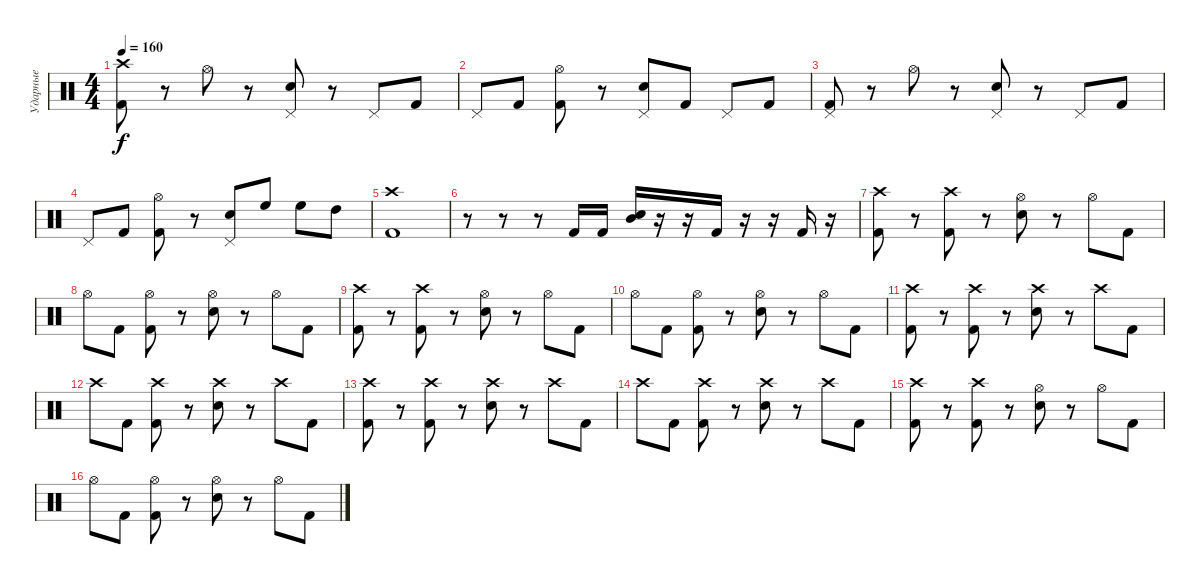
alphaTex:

\track ("Ударные" "Ударные") {instrument percussion}
\staff {score}
\articulation defaults
\ts (4 4)
\tempo 160
\clef neutral
\ks c
("Crash high (hit)" "Kick (hit) 2").8{dy f} r.8 "Hi-Hat (open)".8 r.8 ("Pedal Hi-Hat (hit)" "Snare (hit) 2").8 r.8 "Pedal Hi-Hat (hit)".8 "Kick (hit) 2".8 |
"Pedal Hi-Hat (hit)".8 "Kick (hit) 2".8 ("Hi-Hat (open)" "Kick (hit) 2").8 r.8 ("Pedal Hi-Hat (hit)" "Snare (hit) 2").8 "Kick (hit) 2".8 "Pedal Hi-Hat (hit)".8 "Kick (hit) 2".8 |
("Pedal Hi-Hat (hit)" "Kick (hit) 2").8 r.8 "Hi-Hat (open)".8 r.8 ("Pedal Hi-Hat (hit)" "Snare (hit) 2").8 r.8 "Pedal Hi-Hat (hit)".8 "Kick (hit) 2".8 |
"Pedal Hi-Hat (hit)".8 "Kick (hit) 2".8 ("Hi-Hat (open)" "Kick (hit) 2").8 r.8 ("Pedal Hi-Hat (hit)" "Snare (hit) 2").8 "High Floor Tom (hit)".8 "High Floor Tom (hit)".8 "High Tom (hit)".8 |
("Crash high (hit)" "Kick (hit) 2").1 |
r.8 r.8 r.8 "Kick (hit) 2".16 "Kick (hit) 2".16 ("Mid Tom (hit)" "Snare (hit) 2").16 r.16 r.16 "Kick (hit) 2".16 r.16 r.16 "Kick (hit) 2".16 r.16 |
("Crash high (hit)" "Kick (hit) 2").8 r.8 ("Crash high (hit)" "Kick (hit) 2").8 r.8 ("Hi-Hat (open)" "Snare (hit) 2").8 r.8 "Hi-Hat (open)".8 "Kick (hit) 2".8 |
"Hi-Hat (open)".8 "Kick (hit) 2".8 ("Hi-Hat (open)" "Kick (hit) 2").8 r.8 ("Hi-Hat (open)" "Snare (hit) 2").8 r.8 "Hi-Hat (open)".8 "Kick (hit) 2".8 |
("Crash high (hit)" "Kick (hit) 2").8 r.8 ("Crash high (hit)" "Kick (hit) 2").8 r.8 ("Hi-Hat (open)" "Snare (hit) 2").8 r.8 "Hi-Hat (open)".8 "Kick (hit) 2".8 |
"Hi-Hat (open)".8 "Kick (hit) 2".8 ("Hi-Hat (open)" "Kick (hit) 2").8 r.8 ("Hi-Hat (open)" "Snare (hit) 2").8 r.8 "Hi-Hat (open)".8 "Kick (hit) 2".8 |
("Crash high (hit)" "Kick (hit) 2").8 r.8 ("Crash high (hit)" "Kick (hit) 2").8 r.8 ("Crash high (hit)" "Snare (hit) 2").8 r.8 "Crash high (hit)".8 "Kick (hit) 2".8 |
"Crash high (hit)".8 "Kick (hit) 2".8 ("Crash high (hit)" "Kick (hit) 2").8 r.8 ("Crash high (hit)" "Snare (hit) 2").8 r.8 "Crash high (hit)".8 "Kick (hit) 2".8 |
("Crash high (hit)" "Kick (hit) 2").8 r.8 ("Crash high (hit)" "Kick (hit) 2").8 r.8 ("Crash high (hit)" "Snare (hit) 2").8 r.8 "Crash high (hit)".8 "Kick (hit) 2".8 |
"Crash high (hit)".8 "Kick (hit) 2".8 ("Crash high (hit)" "Kick (hit) 2").8 r.8 ("Crash high (hit)" "Snare (hit) 2").8 r.8 "Crash high (hit)".8 "Kick (hit) 2".8 |
("Crash high (hit)" "Kick (hit) 2").8 r.8 ("Crash high (hit)" "Kick (hit) 2").8 r.8 ("Hi-Hat (open)" "Snare (hit) 2").8 r.8 "Hi-Hat (open)".8 "Kick (hit) 2".8 |
"Hi-Hat (open)".8 "Kick (hit) 2".8 ("Hi-Hat (open)" "Kick (hit) 2").8 r.8 ("Hi-Hat (open)" "Snare (hit) 2").8 r.8 "Hi-Hat (open)".8 "Kick (hit) 2".8
